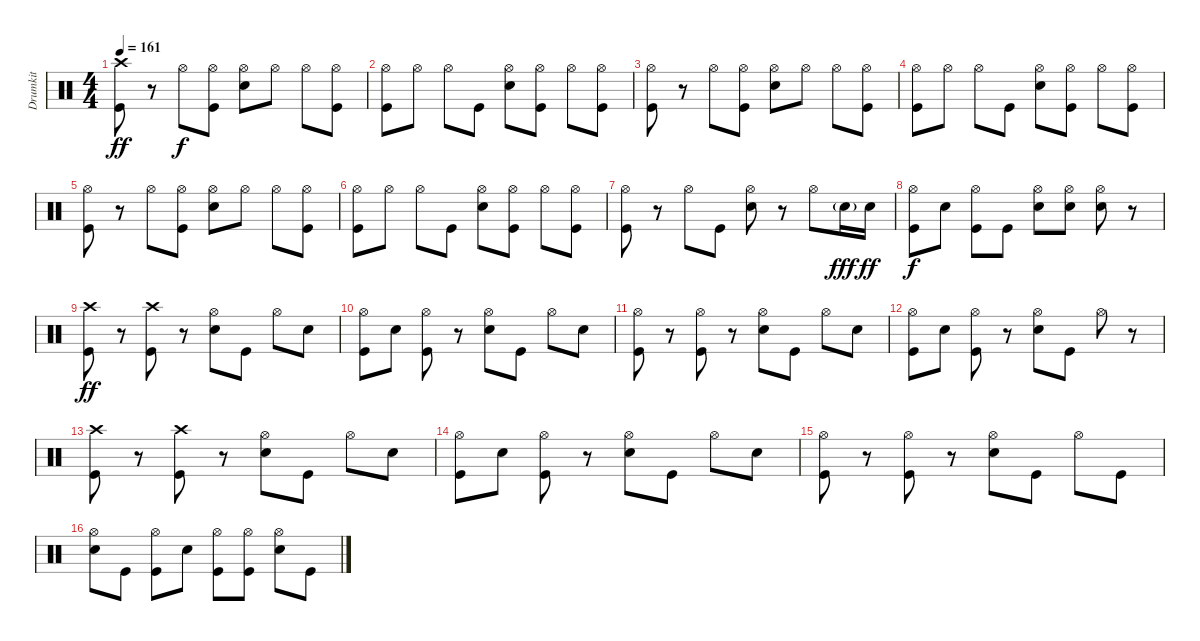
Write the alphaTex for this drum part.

\track ("Drumkit" "Drumkit") {instrument percussion}
\staff {score}
\articulation defaults
\ts (4 4)
\tempo 161
\clef neutral
\ks c
("Crash high (hit)" "Kick (hit)").8{dy ff} r.8 "Hi-Hat (open)".8{dy f} ("Hi-Hat (open)" "Kick (hit)").8 ("Hi-Hat (open)" "Snare (hit) 2").8 "Hi-Hat (open)".8 "Hi-Hat (open)".8 ("Hi-Hat (open)" "Kick (hit)").8 |
("Hi-Hat (open)" "Kick (hit)").8 "Hi-Hat (open)".8 "Hi-Hat (open)".8 "Kick (hit)".8 ("Hi-Hat (open)" "Snare (hit) 2").8 ("Hi-Hat (open)" "Kick (hit)").8 "Hi-Hat (open)".8 ("Hi-Hat (open)" "Kick (hit)").8 |
("Kick (hit)" "Hi-Hat (open)").8 r.8 "Hi-Hat (open)".8 ("Hi-Hat (open)" "Kick (hit)").8 ("Hi-Hat (open)" "Snare (hit) 2").8 "Hi-Hat (open)".8 "Hi-Hat (open)".8 ("Hi-Hat (open)" "Kick (hit)").8 |
("Hi-Hat (open)" "Kick (hit)").8 "Hi-Hat (open)".8 "Hi-Hat (open)".8 "Kick (hit)".8 ("Hi-Hat (open)" "Snare (hit) 2").8 ("Hi-Hat (open)" "Kick (hit)").8 "Hi-Hat (open)".8 ("Hi-Hat (open)" "Kick (hit)").8 |
("Kick (hit)" "Hi-Hat (open)").8 r.8 "Hi-Hat (open)".8 ("Hi-Hat (open)" "Kick (hit)").8 ("Hi-Hat (open)" "Snare (hit) 2").8 "Hi-Hat (open)".8 "Hi-Hat (open)".8 ("Hi-Hat (open)" "Kick (hit)").8 |
("Hi-Hat (open)" "Kick (hit)").8 "Hi-Hat (open)".8 "Hi-Hat (open)".8 "Kick (hit)".8 ("Hi-Hat (open)" "Snare (hit) 2").8 ("Hi-Hat (open)" "Kick (hit)").8 "Hi-Hat (open)".8 ("Hi-Hat (open)" "Kick (hit)").8 |
("Kick (hit)" "Hi-Hat (open)").8 r.8 "Hi-Hat (open)".8 "Kick (hit)".8 ("Hi-Hat (open)" "Snare (hit) 2").8 r.8 "Hi-Hat (open)".8 "Snare (hit) 2"{g}.16{dy fff} "Snare (hit) 2".16{dy ff} |
("Hi-Hat (open)" "Kick (hit)").8{dy f} "Snare (hit) 2".8 ("Hi-Hat (open)" "Kick (hit)").8 "Kick (hit)".8 ("Hi-Hat (open)" "Snare (hit) 2").8 ("Hi-Hat (open)" "Snare (hit) 2").8 ("Hi-Hat (open)" "Snare (hit) 2").8 r.8 |
("Kick (hit)" "Crash high (hit)").8{dy ff} r.8 ("Kick (hit)" "Crash high (hit)").8 r.8 ("Hi-Hat (open)" "Snare (hit) 2").8 "Kick (hit)".8 "Hi-Hat (open)".8 "Snare (hit) 2".8 |
("Hi-Hat (open)" "Kick (hit)").8 "Snare (hit) 2".8 ("Hi-Hat (open)" "Kick (hit)").8 r.8 ("Hi-Hat (open)" "Snare (hit) 2").8 "Kick (hit)".8 "Hi-Hat (open)".8 "Snare (hit) 2".8 |
("Hi-Hat (open)" "Kick (hit)").8 r.8 ("Hi-Hat (open)" "Kick (hit)").8 r.8 ("Hi-Hat (open)" "Snare (hit) 2").8 "Kick (hit)".8 "Hi-Hat (open)".8 "Snare (hit) 2".8 |
("Hi-Hat (open)" "Kick (hit)").8 "Snare (hit) 2".8 ("Hi-Hat (open)" "Kick (hit)").8 r.8 ("Hi-Hat (open)" "Snare (hit) 2").8 "Kick (hit)".8 "Hi-Hat (open)".8 r.8 |
("Kick (hit)" "Crash high (hit)").8 r.8 ("Kick (hit)" "Crash high (hit)").8 r.8 ("Hi-Hat (open)" "Snare (hit) 2").8 "Kick (hit)".8 "Hi-Hat (open)".8 "Snare (hit) 2".8 |
("Hi-Hat (open)" "Kick (hit)").8 "Snare (hit) 2".8 ("Hi-Hat (open)" "Kick (hit)").8 r.8 ("Hi-Hat (open)" "Snare (hit) 2").8 "Kick (hit)".8 "Hi-Hat (open)".8 "Snare (hit) 2".8 |
("Hi-Hat (open)" "Kick (hit)").8 r.8 ("Hi-Hat (open)" "Kick (hit)").8 r.8 ("Hi-Hat (open)" "Snare (hit) 2").8 "Kick (hit)".8 "Hi-Hat (open)".8 "Kick (hit)".8 |
("Snare (hit) 2" "Hi-Hat (open)").8 "Kick (hit)".8 ("Hi-Hat (open)" "Kick (hit)").8 "Snare (hit) 2".8 ("Hi-Hat (open)" "Kick (hit)").8 ("Hi-Hat (open)" "Kick (hit)").8 ("Hi-Hat (open)" "Snare (hit) 2").8 "Kick (hit)".8
